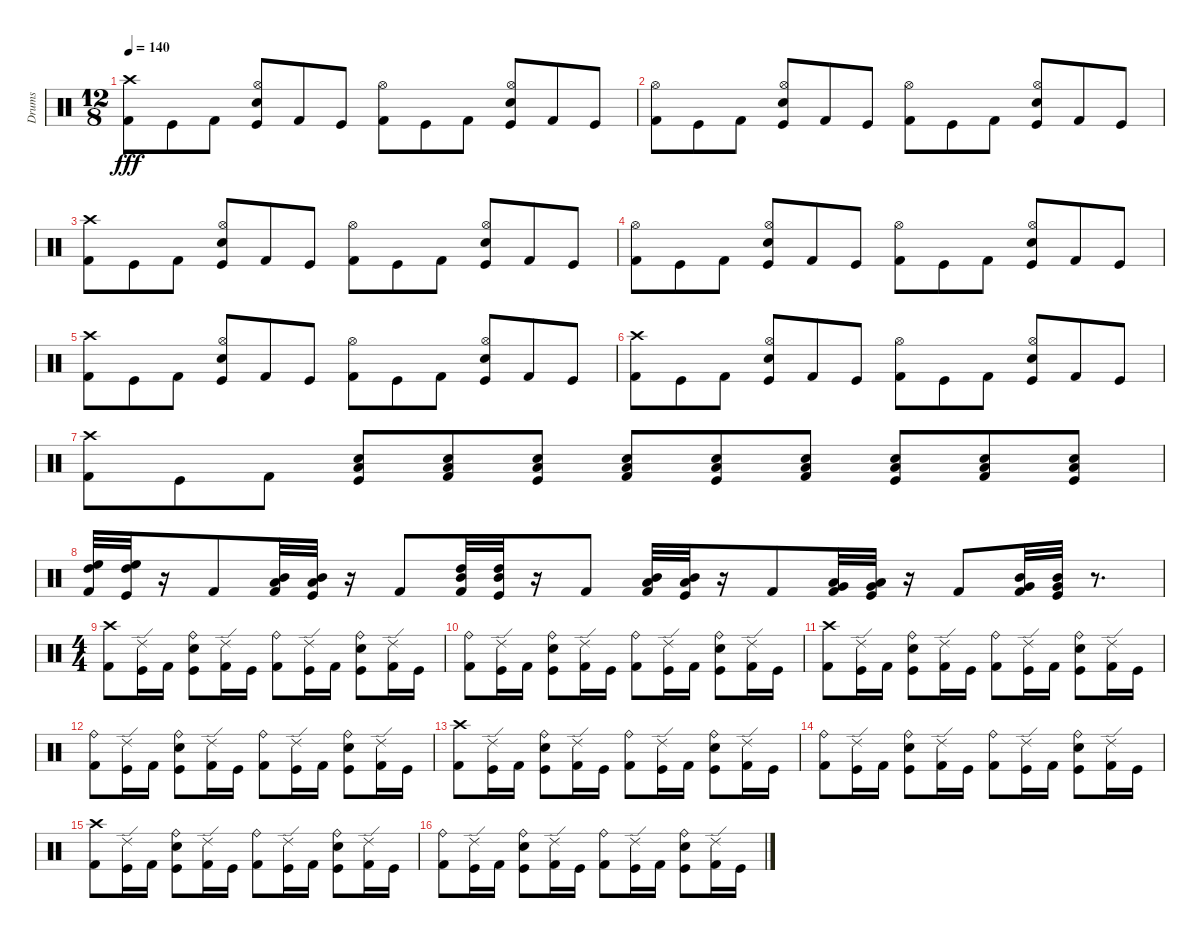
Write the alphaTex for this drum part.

\track ("Drums" "Drums") {instrument percussion}
\staff {score}
\articulation defaults
\ts (12 8)
\tempo 140
\clef neutral
\ks c
("Crash high (hit)" "Kick (hit) 2").8{dy fff} "Kick (hit)".8 "Kick (hit) 2".8 ("Hi-Hat (open)" "Electric Snare (hit)" "Kick (hit)").8 "Kick (hit) 2".8 "Kick (hit)".8 ("Hi-Hat (open)" "Kick (hit) 2").8 "Kick (hit)".8 "Kick (hit) 2".8 ("Hi-Hat (open)" "Electric Snare (hit)" "Kick (hit)").8 "Kick (hit) 2".8 "Kick (hit)".8 |
("Hi-Hat (open)" "Kick (hit) 2").8 "Kick (hit)".8 "Kick (hit) 2".8 ("Hi-Hat (open)" "Electric Snare (hit)" "Kick (hit)").8 "Kick (hit) 2".8 "Kick (hit)".8 ("Hi-Hat (open)" "Kick (hit) 2").8 "Kick (hit)".8 "Kick (hit) 2".8 ("Hi-Hat (open)" "Electric Snare (hit)" "Kick (hit)").8 "Kick (hit) 2".8 "Kick (hit)".8 |
("Crash high (hit)" "Kick (hit) 2").8 "Kick (hit)".8 "Kick (hit) 2".8 ("Hi-Hat (open)" "Electric Snare (hit)" "Kick (hit)").8 "Kick (hit) 2".8 "Kick (hit)".8 ("Hi-Hat (open)" "Kick (hit) 2").8 "Kick (hit)".8 "Kick (hit) 2".8 ("Hi-Hat (open)" "Electric Snare (hit)" "Kick (hit)").8 "Kick (hit) 2".8 "Kick (hit)".8 |
("Hi-Hat (open)" "Kick (hit) 2").8 "Kick (hit)".8 "Kick (hit) 2".8 ("Hi-Hat (open)" "Electric Snare (hit)" "Kick (hit)").8 "Kick (hit) 2".8 "Kick (hit)".8 ("Hi-Hat (open)" "Kick (hit) 2").8 "Kick (hit)".8 "Kick (hit) 2".8 ("Hi-Hat (open)" "Electric Snare (hit)" "Kick (hit)").8 "Kick (hit) 2".8 "Kick (hit)".8 |
("Crash high (hit)" "Kick (hit) 2").8 "Kick (hit)".8 "Kick (hit) 2".8 ("Hi-Hat (open)" "Electric Snare (hit)" "Kick (hit)").8 "Kick (hit) 2".8 "Kick (hit)".8 ("Hi-Hat (open)" "Kick (hit) 2").8 "Kick (hit)".8 "Kick (hit) 2".8 ("Hi-Hat (open)" "Electric Snare (hit)" "Kick (hit)").8 "Kick (hit) 2".8 "Kick (hit)".8 |
("Crash high (hit)" "Kick (hit) 2").8 "Kick (hit)".8 "Kick (hit) 2".8 ("Hi-Hat (open)" "Electric Snare (hit)" "Kick (hit)").8 "Kick (hit) 2".8 "Kick (hit)".8 ("Hi-Hat (open)" "Kick (hit) 2").8 "Kick (hit)".8 "Kick (hit) 2".8 ("Hi-Hat (open)" "Electric Snare (hit)" "Kick (hit)").8 "Kick (hit) 2".8 "Kick (hit)".8 |
("Crash high (hit)" "Kick (hit) 2").8 "Kick (hit)".8 "Kick (hit) 2".8 ("Low Floor Tom (hit)" "Electric Snare (hit)" "Kick (hit)").8 ("Low Floor Tom (hit)" "Electric Snare (hit)" "Kick (hit) 2").8 ("Low Floor Tom (hit)" "Electric Snare (hit)" "Kick (hit)").8 ("Low Floor Tom (hit)" "Electric Snare (hit)" "Kick (hit) 2").8 ("Low Floor Tom (hit)" "Electric Snare (hit)" "Kick (hit)").8 ("Low Floor Tom (hit)" "Electric Snare (hit)" "Kick (hit) 2").8 ("Low Floor Tom (hit)" "Electric Snare (hit)" "Kick (hit)").8 ("Low Floor Tom (hit)" "Electric Snare (hit)" "Kick (hit) 2").8 ("Low Floor Tom (hit)" "Electric Snare (hit)" "Kick (hit)").8 |
("High Floor Tom (hit)" "High Tom (hit)" "Kick (hit) 2").32 ("High Floor Tom (hit)" "High Tom (hit)" "Kick (hit)").32 r.16 "Kick (hit) 2".8 ("Mid Tom (hit)" "Low Tom (hit)" "Kick (hit) 2").32 ("Mid Tom (hit)" "Low Tom (hit)" "Kick (hit)").32 r.16 "Kick (hit) 2".8 ("Mid Tom (hit)" "High Tom (hit)" "Kick (hit) 2").32 ("Mid Tom (hit)" "High Tom (hit)" "Kick (hit)").32 r.16 "Kick (hit) 2".8 ("Low Tom (hit)" "Mid Tom (hit)" "Kick (hit) 2").32 ("Low Tom (hit)" "Mid Tom (hit)" "Kick (hit)").32 r.16 "Kick (hit) 2".8 ("Very Low Tom (hit)" "Low Tom (hit)" "Kick (hit) 2").32 ("Very Low Tom (hit)" "Low Tom (hit)" "Kick (hit)").32 r.16 "Kick (hit) 2".8 ("Very Low Tom (hit)" "Mid Tom (hit)" "Kick (hit) 2").32 ("Very Low Tom (hit)" "Mid Tom (hit)" "Kick (hit)").32 r.8{d} |
\ts (4 4)
("Crash high (hit)" "Kick (hit) 2").8 ("Ride (edge) 2" "Kick (hit)").16 "Kick (hit) 2".16 ("Ride (bell)" "Electric Snare (hit)" "Kick (hit)").8 ("Ride (edge) 2" "Kick (hit) 2").16 "Kick (hit)".16 ("Ride (bell)" "Kick (hit) 2").8 ("Ride (edge) 2" "Kick (hit)").16 "Kick (hit) 2".16 ("Ride (bell)" "Electric Snare (hit)" "Kick (hit)").8 ("Ride (edge) 2" "Kick (hit) 2").16 "Kick (hit)".16 |
("Ride (bell)" "Kick (hit) 2").8 ("Ride (edge) 2" "Kick (hit)").16 "Kick (hit) 2".16 ("Ride (bell)" "Electric Snare (hit)" "Kick (hit)").8 ("Ride (edge) 2" "Kick (hit) 2").16 "Kick (hit)".16 ("Ride (bell)" "Kick (hit) 2").8 ("Ride (edge) 2" "Kick (hit)").16 "Kick (hit) 2".16 ("Ride (bell)" "Electric Snare (hit)" "Kick (hit)").8 ("Ride (edge) 2" "Kick (hit) 2").16 "Kick (hit)".16 |
("Crash high (hit)" "Kick (hit) 2").8 ("Ride (edge) 2" "Kick (hit)").16 "Kick (hit) 2".16 ("Ride (bell)" "Electric Snare (hit)" "Kick (hit)").8 ("Ride (edge) 2" "Kick (hit) 2").16 "Kick (hit)".16 ("Ride (bell)" "Kick (hit) 2").8 ("Ride (edge) 2" "Kick (hit)").16 "Kick (hit) 2".16 ("Ride (bell)" "Electric Snare (hit)" "Kick (hit)").8 ("Ride (edge) 2" "Kick (hit) 2").16 "Kick (hit)".16 |
("Ride (bell)" "Kick (hit) 2").8 ("Ride (edge) 2" "Kick (hit)").16 "Kick (hit) 2".16 ("Ride (bell)" "Electric Snare (hit)" "Kick (hit)").8 ("Ride (edge) 2" "Kick (hit) 2").16 "Kick (hit)".16 ("Ride (bell)" "Kick (hit) 2").8 ("Ride (edge) 2" "Kick (hit)").16 "Kick (hit) 2".16 ("Ride (bell)" "Electric Snare (hit)" "Kick (hit)").8 ("Ride (edge) 2" "Kick (hit) 2").16 "Kick (hit)".16 |
("Crash high (hit)" "Kick (hit) 2").8 ("Ride (edge) 2" "Kick (hit)").16 "Kick (hit) 2".16 ("Ride (bell)" "Electric Snare (hit)" "Kick (hit)").8 ("Ride (edge) 2" "Kick (hit) 2").16 "Kick (hit)".16 ("Ride (bell)" "Kick (hit) 2").8 ("Ride (edge) 2" "Kick (hit)").16 "Kick (hit) 2".16 ("Ride (bell)" "Electric Snare (hit)" "Kick (hit)").8 ("Ride (edge) 2" "Kick (hit) 2").16 "Kick (hit)".16 |
("Ride (bell)" "Kick (hit) 2").8 ("Ride (edge) 2" "Kick (hit)").16 "Kick (hit) 2".16 ("Ride (bell)" "Electric Snare (hit)" "Kick (hit)").8 ("Ride (edge) 2" "Kick (hit) 2").16 "Kick (hit)".16 ("Ride (bell)" "Kick (hit) 2").8 ("Ride (edge) 2" "Kick (hit)").16 "Kick (hit) 2".16 ("Ride (bell)" "Electric Snare (hit)" "Kick (hit)").8 ("Ride (edge) 2" "Kick (hit) 2").16 "Kick (hit)".16 |
("Crash high (hit)" "Kick (hit) 2").8 ("Ride (edge) 2" "Kick (hit)").16 "Kick (hit) 2".16 ("Ride (bell)" "Electric Snare (hit)" "Kick (hit)").8 ("Ride (edge) 2" "Kick (hit) 2").16 "Kick (hit)".16 ("Ride (bell)" "Kick (hit) 2").8 ("Ride (edge) 2" "Kick (hit)").16 "Kick (hit) 2".16 ("Ride (bell)" "Electric Snare (hit)" "Kick (hit)").8 ("Ride (edge) 2" "Kick (hit) 2").16 "Kick (hit)".16 |
("Ride (bell)" "Kick (hit) 2").8 ("Ride (edge) 2" "Kick (hit)").16 "Kick (hit) 2".16 ("Ride (bell)" "Electric Snare (hit)" "Kick (hit)").8 ("Ride (edge) 2" "Kick (hit) 2").16 "Kick (hit)".16 ("Ride (bell)" "Kick (hit) 2").8 ("Ride (edge) 2" "Kick (hit)").16 "Kick (hit) 2".16 ("Ride (bell)" "Electric Snare (hit)" "Kick (hit)").8 ("Ride (edge) 2" "Kick (hit) 2").16 "Kick (hit)".16
